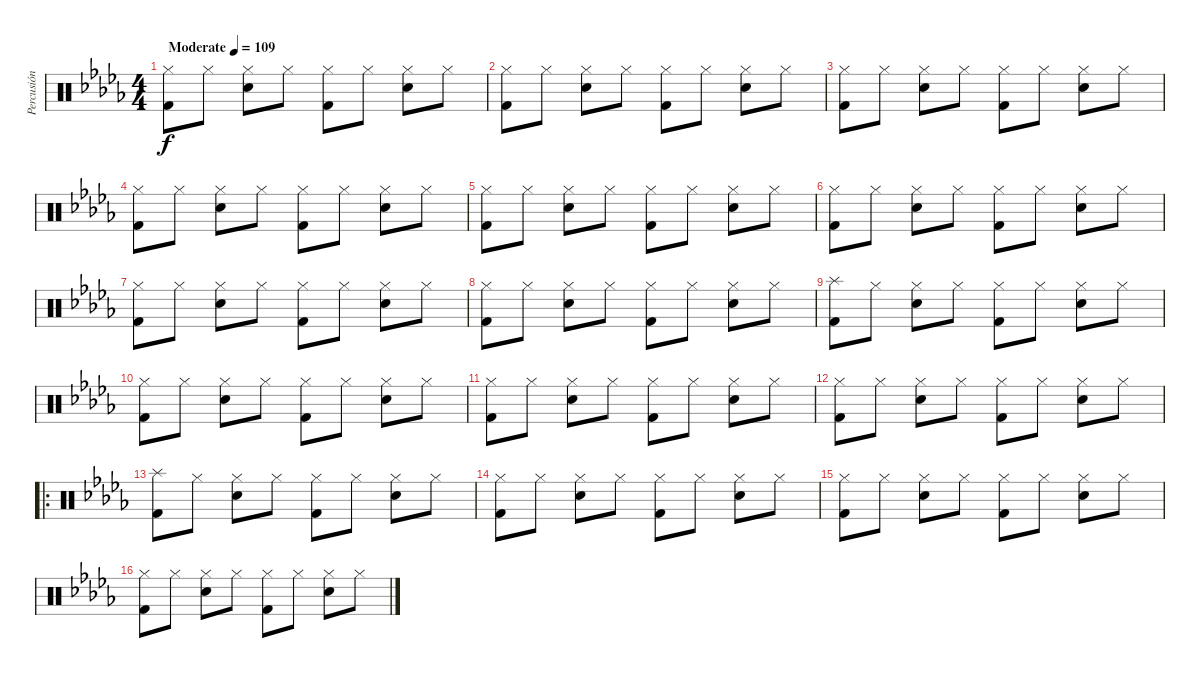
\track ("Percusión" "Percusión") {instrument percussion}
\staff {score}
\articulation defaults
\ts (4 4)
\tempo (109 "Moderate")
\clef neutral
\ks bbminor
("Kick (hit) 2" "Hi-Hat (closed)").8{dy f} "Hi-Hat (closed)".8 ("Snare (hit) 2" "Hi-Hat (closed)").8 "Hi-Hat (closed)".8 ("Kick (hit) 2" "Hi-Hat (closed)").8 "Hi-Hat (closed)".8 ("Snare (hit) 2" "Hi-Hat (closed)").8 "Hi-Hat (closed)".8 |
("Kick (hit) 2" "Hi-Hat (closed)").8 "Hi-Hat (closed)".8 ("Snare (hit) 2" "Hi-Hat (closed)").8 "Hi-Hat (closed)".8 ("Kick (hit) 2" "Hi-Hat (closed)").8 "Hi-Hat (closed)".8 ("Snare (hit) 2" "Hi-Hat (closed)").8 "Hi-Hat (closed)".8 |
("Kick (hit) 2" "Hi-Hat (closed)").8 "Hi-Hat (closed)".8 ("Snare (hit) 2" "Hi-Hat (closed)").8 "Hi-Hat (closed)".8 ("Kick (hit) 2" "Hi-Hat (closed)").8 "Hi-Hat (closed)".8 ("Snare (hit) 2" "Hi-Hat (closed)").8 "Hi-Hat (closed)".8 |
("Kick (hit) 2" "Hi-Hat (closed)").8 "Hi-Hat (closed)".8 ("Snare (hit) 2" "Hi-Hat (closed)").8 "Hi-Hat (closed)".8 ("Kick (hit) 2" "Hi-Hat (closed)").8 "Hi-Hat (closed)".8 ("Snare (hit) 2" "Hi-Hat (closed)").8 "Hi-Hat (closed)".8 |
("Kick (hit) 2" "Hi-Hat (closed)").8 "Hi-Hat (closed)".8 ("Snare (hit) 2" "Hi-Hat (closed)").8 "Hi-Hat (closed)".8 ("Kick (hit) 2" "Hi-Hat (closed)").8 "Hi-Hat (closed)".8 ("Snare (hit) 2" "Hi-Hat (closed)").8 "Hi-Hat (closed)".8 |
("Kick (hit) 2" "Hi-Hat (closed)").8 "Hi-Hat (closed)".8 ("Snare (hit) 2" "Hi-Hat (closed)").8 "Hi-Hat (closed)".8 ("Kick (hit) 2" "Hi-Hat (closed)").8 "Hi-Hat (closed)".8 ("Snare (hit) 2" "Hi-Hat (closed)").8 "Hi-Hat (closed)".8 |
("Kick (hit) 2" "Hi-Hat (closed)").8 "Hi-Hat (closed)".8 ("Snare (hit) 2" "Hi-Hat (closed)").8 "Hi-Hat (closed)".8 ("Kick (hit) 2" "Hi-Hat (closed)").8 "Hi-Hat (closed)".8 ("Snare (hit) 2" "Hi-Hat (closed)").8 "Hi-Hat (closed)".8 |
("Kick (hit) 2" "Hi-Hat (closed)").8 "Hi-Hat (closed)".8 ("Snare (hit) 2" "Hi-Hat (closed)").8 "Hi-Hat (closed)".8 ("Kick (hit) 2" "Hi-Hat (closed)").8 "Hi-Hat (closed)".8 ("Snare (hit) 2" "Hi-Hat (closed)").8 "Hi-Hat (closed)".8 |
("Kick (hit) 2" "Splash (hit)").8 "Hi-Hat (closed)".8 ("Snare (hit) 2" "Hi-Hat (closed)").8 "Hi-Hat (closed)".8 ("Kick (hit) 2" "Hi-Hat (closed)").8 "Hi-Hat (closed)".8 ("Snare (hit) 2" "Hi-Hat (closed)").8 "Hi-Hat (closed)".8 |
("Kick (hit) 2" "Hi-Hat (closed)").8 "Hi-Hat (closed)".8 ("Snare (hit) 2" "Hi-Hat (closed)").8 "Hi-Hat (closed)".8 ("Kick (hit) 2" "Hi-Hat (closed)").8 "Hi-Hat (closed)".8 ("Snare (hit) 2" "Hi-Hat (closed)").8 "Hi-Hat (closed)".8 |
("Kick (hit) 2" "Hi-Hat (closed)").8 "Hi-Hat (closed)".8 ("Snare (hit) 2" "Hi-Hat (closed)").8 "Hi-Hat (closed)".8 ("Kick (hit) 2" "Hi-Hat (closed)").8 "Hi-Hat (closed)".8 ("Snare (hit) 2" "Hi-Hat (closed)").8 "Hi-Hat (closed)".8 |
("Kick (hit) 2" "Hi-Hat (closed)").8 "Hi-Hat (closed)".8 ("Snare (hit) 2" "Hi-Hat (closed)").8 "Hi-Hat (closed)".8 ("Kick (hit) 2" "Hi-Hat (closed)").8 "Hi-Hat (closed)".8 ("Snare (hit) 2" "Hi-Hat (closed)").8 "Hi-Hat (closed)".8 |
\ro
("Kick (hit) 2" "Splash (hit)").8 "Hi-Hat (closed)".8 ("Snare (hit) 2" "Hi-Hat (closed)").8 "Hi-Hat (closed)".8 ("Kick (hit) 2" "Hi-Hat (closed)").8 "Hi-Hat (closed)".8 ("Snare (hit) 2" "Hi-Hat (closed)").8 "Hi-Hat (closed)".8 |
("Kick (hit) 2" "Hi-Hat (closed)").8 "Hi-Hat (closed)".8 ("Snare (hit) 2" "Hi-Hat (closed)").8 "Hi-Hat (closed)".8 ("Kick (hit) 2" "Hi-Hat (closed)").8 "Hi-Hat (closed)".8 ("Snare (hit) 2" "Hi-Hat (closed)").8 "Hi-Hat (closed)".8 |
("Kick (hit) 2" "Hi-Hat (closed)").8 "Hi-Hat (closed)".8 ("Snare (hit) 2" "Hi-Hat (closed)").8 "Hi-Hat (closed)".8 ("Kick (hit) 2" "Hi-Hat (closed)").8 "Hi-Hat (closed)".8 ("Snare (hit) 2" "Hi-Hat (closed)").8 "Hi-Hat (closed)".8 |
("Kick (hit) 2" "Hi-Hat (closed)").8 "Hi-Hat (closed)".8 ("Snare (hit) 2" "Hi-Hat (closed)").8 "Hi-Hat (closed)".8 ("Kick (hit) 2" "Hi-Hat (closed)").8 "Hi-Hat (closed)".8 ("Snare (hit) 2" "Hi-Hat (closed)").8 "Hi-Hat (closed)".8
